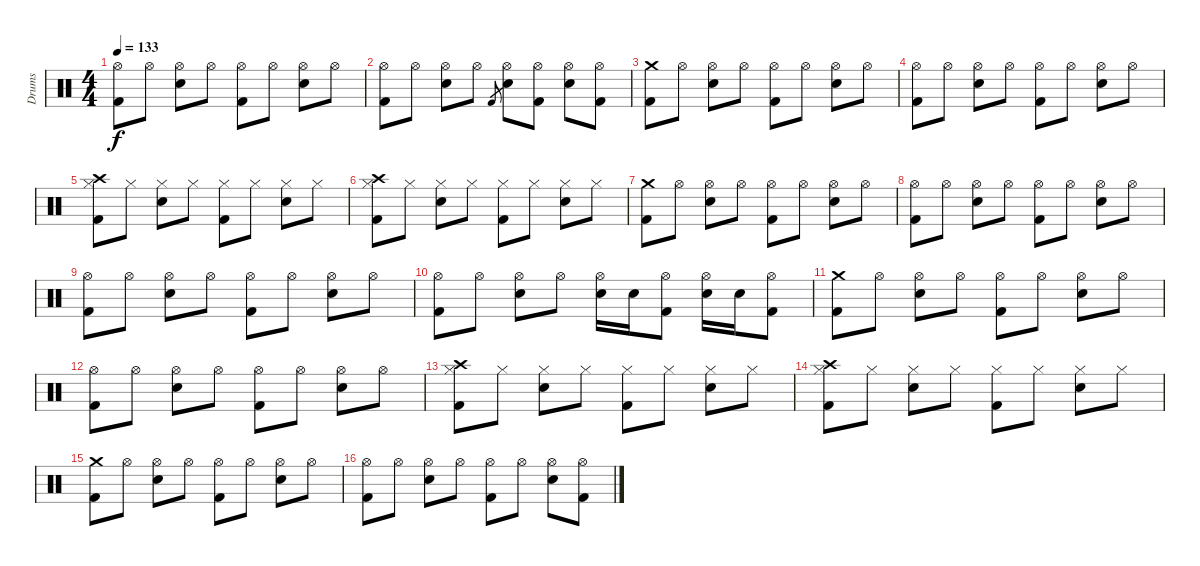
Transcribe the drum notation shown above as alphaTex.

\track ("Drums" "Drums") {instrument percussion}
\staff {score}
\articulation defaults
\ts (4 4)
\tempo 133
\clef neutral
\ks c
("Hi-Hat (open)" "Kick (hit) 2").8{dy f} "Hi-Hat (open)".8 ("Hi-Hat (open)" "Snare (hit) 2").8 "Hi-Hat (open)".8 ("Hi-Hat (open)" "Kick (hit) 2").8 "Hi-Hat (open)".8 ("Hi-Hat (open)" "Snare (hit) 2").8 "Hi-Hat (open)".8 |
("Hi-Hat (open)" "Kick (hit) 2").8 "Hi-Hat (open)".8 ("Hi-Hat (open)" "Snare (hit) 2").8 "Hi-Hat (open)".8 "Kick (hit) 2".8{gr} ("Hi-Hat (open)" "Snare (hit) 2").8 ("Hi-Hat (open)" "Kick (hit) 2").8 ("Hi-Hat (open)" "Snare (hit) 2").8 ("Hi-Hat (open)" "Kick (hit) 2").8 |
("Crash medium (hit)" "Kick (hit) 2").8 "Hi-Hat (open)".8 ("Hi-Hat (open)" "Snare (hit) 2").8 "Hi-Hat (open)".8 ("Hi-Hat (open)" "Kick (hit) 2").8 "Hi-Hat (open)".8 ("Hi-Hat (open)" "Snare (hit) 2").8 "Hi-Hat (open)".8 |
("Hi-Hat (open)" "Kick (hit) 2").8 "Hi-Hat (open)".8 ("Hi-Hat (open)" "Snare (hit) 2").8 "Hi-Hat (open)".8 ("Hi-Hat (open)" "Kick (hit) 2").8 "Hi-Hat (open)".8 ("Hi-Hat (open)" "Snare (hit) 2").8 "Hi-Hat (open)".8 |
("Crash high (hit)" "Hi-Hat (closed)" "Kick (hit) 2").8 "Hi-Hat (closed)".8 ("Hi-Hat (closed)" "Snare (hit) 2").8 "Hi-Hat (closed)".8 ("Hi-Hat (closed)" "Kick (hit) 2").8 "Hi-Hat (closed)".8 ("Hi-Hat (closed)" "Snare (hit) 2").8 "Hi-Hat (closed)".8 |
("Crash high (hit)" "Hi-Hat (closed)" "Kick (hit) 2").8 "Hi-Hat (closed)".8 ("Hi-Hat (closed)" "Snare (hit) 2").8 "Hi-Hat (closed)".8 ("Hi-Hat (closed)" "Kick (hit) 2").8 "Hi-Hat (closed)".8 ("Hi-Hat (closed)" "Snare (hit) 2").8 "Hi-Hat (closed)".8 |
("Crash medium (hit)" "Kick (hit) 2").8 "Hi-Hat (open)".8 ("Hi-Hat (open)" "Snare (hit) 2").8 "Hi-Hat (open)".8 ("Hi-Hat (open)" "Kick (hit) 2").8 "Hi-Hat (open)".8 ("Hi-Hat (open)" "Snare (hit) 2").8 "Hi-Hat (open)".8 |
("Hi-Hat (open)" "Kick (hit) 2").8 "Hi-Hat (open)".8 ("Hi-Hat (open)" "Snare (hit) 2").8 "Hi-Hat (open)".8 ("Hi-Hat (open)" "Kick (hit) 2").8 "Hi-Hat (open)".8 ("Hi-Hat (open)" "Snare (hit) 2").8 "Hi-Hat (open)".8 |
("Hi-Hat (open)" "Kick (hit) 2").8 "Hi-Hat (open)".8 ("Hi-Hat (open)" "Snare (hit) 2").8 "Hi-Hat (open)".8 ("Hi-Hat (open)" "Kick (hit) 2").8 "Hi-Hat (open)".8 ("Hi-Hat (open)" "Snare (hit) 2").8 "Hi-Hat (open)".8 |
("Hi-Hat (open)" "Kick (hit) 2").8 "Hi-Hat (open)".8 ("Hi-Hat (open)" "Snare (hit) 2").8 "Hi-Hat (open)".8 ("Hi-Hat (open)" "Snare (hit) 2").16 "Snare (hit) 2".16 ("Hi-Hat (open)" "Kick (hit) 2").8 ("Hi-Hat (open)" "Snare (hit) 2").16 "Snare (hit) 2".16 ("Hi-Hat (open)" "Kick (hit) 2").8 |
("Crash medium (hit)" "Kick (hit) 2").8 "Hi-Hat (open)".8 ("Hi-Hat (open)" "Snare (hit) 2").8 "Hi-Hat (open)".8 ("Hi-Hat (open)" "Kick (hit) 2").8 "Hi-Hat (open)".8 ("Hi-Hat (open)" "Snare (hit) 2").8 "Hi-Hat (open)".8 |
("Hi-Hat (open)" "Kick (hit) 2").8 "Hi-Hat (open)".8 ("Hi-Hat (open)" "Snare (hit) 2").8 "Hi-Hat (open)".8 ("Hi-Hat (open)" "Kick (hit) 2").8 "Hi-Hat (open)".8 ("Hi-Hat (open)" "Snare (hit) 2").8 "Hi-Hat (open)".8 |
("Crash high (hit)" "Hi-Hat (closed)" "Kick (hit) 2").8 "Hi-Hat (closed)".8 ("Hi-Hat (closed)" "Snare (hit) 2").8 "Hi-Hat (closed)".8 ("Hi-Hat (closed)" "Kick (hit) 2").8 "Hi-Hat (closed)".8 ("Hi-Hat (closed)" "Snare (hit) 2").8 "Hi-Hat (closed)".8 |
("Crash high (hit)" "Hi-Hat (closed)" "Kick (hit) 2").8 "Hi-Hat (closed)".8 ("Hi-Hat (closed)" "Snare (hit) 2").8 "Hi-Hat (closed)".8 ("Hi-Hat (closed)" "Kick (hit) 2").8 "Hi-Hat (closed)".8 ("Hi-Hat (closed)" "Snare (hit) 2").8 "Hi-Hat (closed)".8 |
("Crash medium (hit)" "Kick (hit) 2").8 "Hi-Hat (open)".8 ("Hi-Hat (open)" "Snare (hit) 2").8 "Hi-Hat (open)".8 ("Hi-Hat (open)" "Kick (hit) 2").8 "Hi-Hat (open)".8 ("Hi-Hat (open)" "Snare (hit) 2").8 "Hi-Hat (open)".8 |
("Hi-Hat (open)" "Kick (hit) 2").8 "Hi-Hat (open)".8 ("Hi-Hat (open)" "Snare (hit) 2").8 "Hi-Hat (open)".8 ("Hi-Hat (open)" "Kick (hit) 2").8 "Hi-Hat (open)".8 ("Hi-Hat (open)" "Snare (hit) 2").8 ("Hi-Hat (open)" "Kick (hit) 2").8
